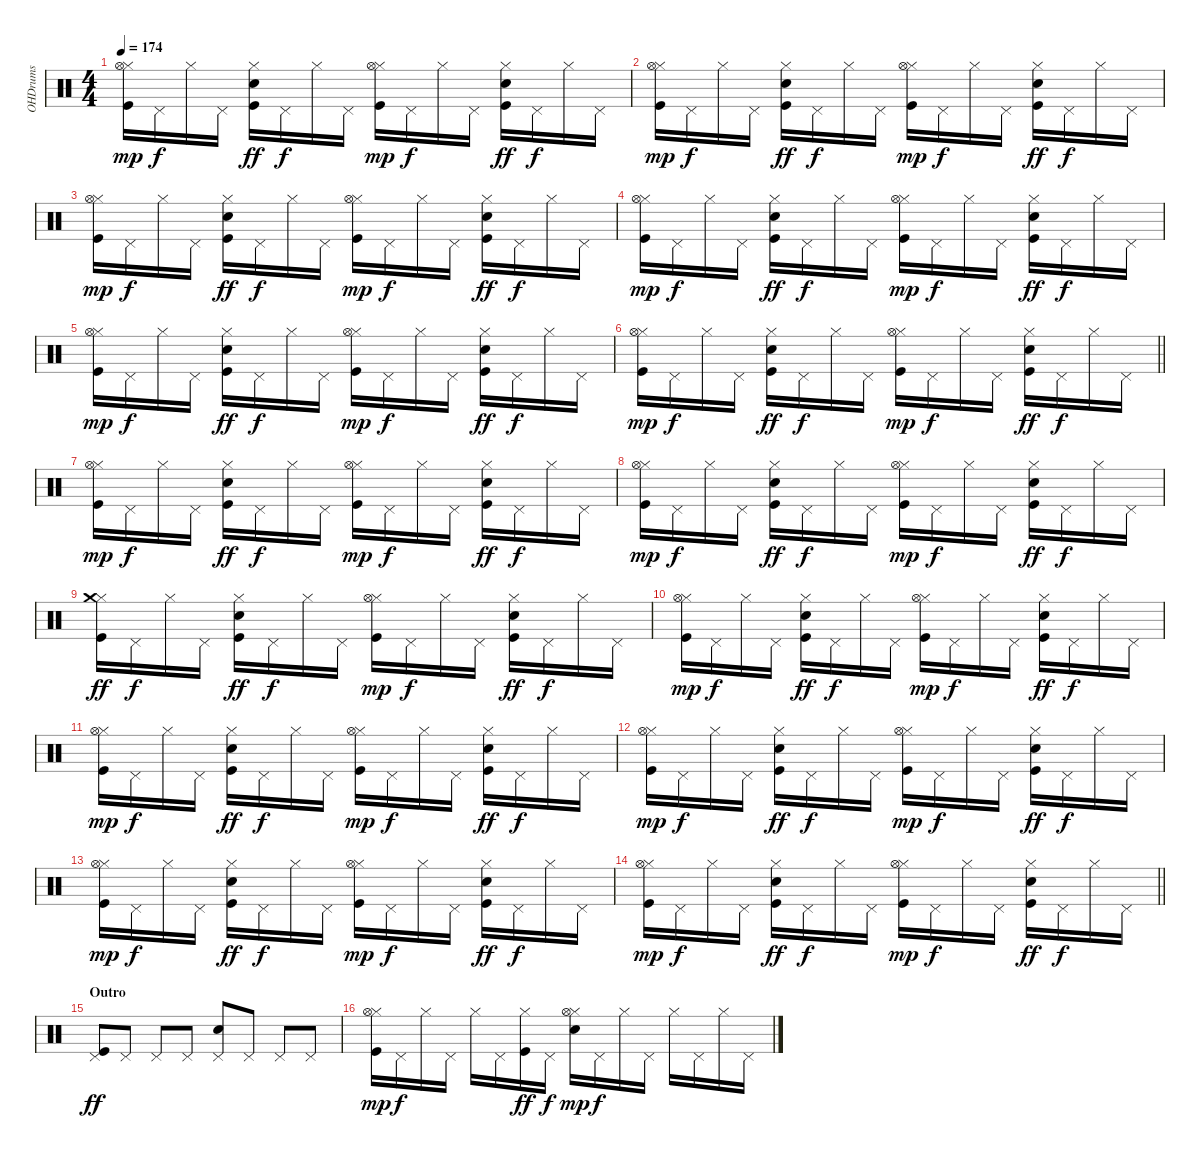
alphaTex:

\track ("OHDrums" "OHDrums") {instrument percussion}
\staff {score}
\articulation defaults
\ts (4 4)
\tempo 174
\clef neutral
\ks c
("Kick (hit)" "Hi-Hat (closed)" "Hi-Hat (open)").16{dy mp} "Pedal Hi-Hat (hit)".16{dy f} "Hi-Hat (closed)".16 "Pedal Hi-Hat (hit)".16 ("Kick (hit)" "Electric Snare (hit)" "Hi-Hat (closed)").16{dy ff} "Pedal Hi-Hat (hit)".16{dy f} "Hi-Hat (closed)".16 "Pedal Hi-Hat (hit)".16 ("Kick (hit)" "Hi-Hat (closed)" "Hi-Hat (open)").16{dy mp} "Pedal Hi-Hat (hit)".16{dy f} "Hi-Hat (closed)".16 "Pedal Hi-Hat (hit)".16 ("Kick (hit)" "Electric Snare (hit)" "Hi-Hat (closed)").16{dy ff} "Pedal Hi-Hat (hit)".16{dy f} "Hi-Hat (closed)".16 "Pedal Hi-Hat (hit)".16 |
("Kick (hit)" "Hi-Hat (closed)" "Hi-Hat (open)").16{dy mp} "Pedal Hi-Hat (hit)".16{dy f} "Hi-Hat (closed)".16 "Pedal Hi-Hat (hit)".16 ("Kick (hit)" "Electric Snare (hit)" "Hi-Hat (closed)").16{dy ff} "Pedal Hi-Hat (hit)".16{dy f} "Hi-Hat (closed)".16 "Pedal Hi-Hat (hit)".16 ("Kick (hit)" "Hi-Hat (closed)" "Hi-Hat (open)").16{dy mp} "Pedal Hi-Hat (hit)".16{dy f} "Hi-Hat (closed)".16 "Pedal Hi-Hat (hit)".16 ("Kick (hit)" "Electric Snare (hit)" "Hi-Hat (closed)").16{dy ff} "Pedal Hi-Hat (hit)".16{dy f} "Hi-Hat (closed)".16 "Pedal Hi-Hat (hit)".16 |
("Kick (hit)" "Hi-Hat (closed)" "Hi-Hat (open)").16{dy mp} "Pedal Hi-Hat (hit)".16{dy f} "Hi-Hat (closed)".16 "Pedal Hi-Hat (hit)".16 ("Kick (hit)" "Electric Snare (hit)" "Hi-Hat (closed)").16{dy ff} "Pedal Hi-Hat (hit)".16{dy f} "Hi-Hat (closed)".16 "Pedal Hi-Hat (hit)".16 ("Kick (hit)" "Hi-Hat (closed)" "Hi-Hat (open)").16{dy mp} "Pedal Hi-Hat (hit)".16{dy f} "Hi-Hat (closed)".16 "Pedal Hi-Hat (hit)".16 ("Kick (hit)" "Electric Snare (hit)" "Hi-Hat (closed)").16{dy ff} "Pedal Hi-Hat (hit)".16{dy f} "Hi-Hat (closed)".16 "Pedal Hi-Hat (hit)".16 |
("Kick (hit)" "Hi-Hat (closed)" "Hi-Hat (open)").16{dy mp} "Pedal Hi-Hat (hit)".16{dy f} "Hi-Hat (closed)".16 "Pedal Hi-Hat (hit)".16 ("Kick (hit)" "Electric Snare (hit)" "Hi-Hat (closed)").16{dy ff} "Pedal Hi-Hat (hit)".16{dy f} "Hi-Hat (closed)".16 "Pedal Hi-Hat (hit)".16 ("Kick (hit)" "Hi-Hat (closed)" "Hi-Hat (open)").16{dy mp} "Pedal Hi-Hat (hit)".16{dy f} "Hi-Hat (closed)".16 "Pedal Hi-Hat (hit)".16 ("Kick (hit)" "Electric Snare (hit)" "Hi-Hat (closed)").16{dy ff} "Pedal Hi-Hat (hit)".16{dy f} "Hi-Hat (closed)".16 "Pedal Hi-Hat (hit)".16 |
("Kick (hit)" "Hi-Hat (closed)" "Hi-Hat (open)").16{dy mp} "Pedal Hi-Hat (hit)".16{dy f} "Hi-Hat (closed)".16 "Pedal Hi-Hat (hit)".16 ("Kick (hit)" "Electric Snare (hit)" "Hi-Hat (closed)").16{dy ff} "Pedal Hi-Hat (hit)".16{dy f} "Hi-Hat (closed)".16 "Pedal Hi-Hat (hit)".16 ("Kick (hit)" "Hi-Hat (closed)" "Hi-Hat (open)").16{dy mp} "Pedal Hi-Hat (hit)".16{dy f} "Hi-Hat (closed)".16 "Pedal Hi-Hat (hit)".16 ("Kick (hit)" "Electric Snare (hit)" "Hi-Hat (closed)").16{dy ff} "Pedal Hi-Hat (hit)".16{dy f} "Hi-Hat (closed)".16 "Pedal Hi-Hat (hit)".16 |
\barLineRight lightlight
("Kick (hit)" "Hi-Hat (closed)" "Hi-Hat (open)").16{dy mp} "Pedal Hi-Hat (hit)".16{dy f} "Hi-Hat (closed)".16 "Pedal Hi-Hat (hit)".16 ("Kick (hit)" "Electric Snare (hit)" "Hi-Hat (closed)").16{dy ff} "Pedal Hi-Hat (hit)".16{dy f} "Hi-Hat (closed)".16 "Pedal Hi-Hat (hit)".16 ("Kick (hit)" "Hi-Hat (closed)" "Hi-Hat (open)").16{dy mp} "Pedal Hi-Hat (hit)".16{dy f} "Hi-Hat (closed)".16 "Pedal Hi-Hat (hit)".16 ("Kick (hit)" "Electric Snare (hit)" "Hi-Hat (closed)").16{dy ff} "Pedal Hi-Hat (hit)".16{dy f} "Hi-Hat (closed)".16 "Pedal Hi-Hat (hit)".16 |
("Kick (hit)" "Hi-Hat (closed)" "Hi-Hat (open)").16{dy mp} "Pedal Hi-Hat (hit)".16{dy f} "Hi-Hat (closed)".16 "Pedal Hi-Hat (hit)".16 ("Kick (hit)" "Electric Snare (hit)" "Hi-Hat (closed)").16{dy ff} "Pedal Hi-Hat (hit)".16{dy f} "Hi-Hat (closed)".16 "Pedal Hi-Hat (hit)".16 ("Kick (hit)" "Hi-Hat (closed)" "Hi-Hat (open)").16{dy mp} "Pedal Hi-Hat (hit)".16{dy f} "Hi-Hat (closed)".16 "Pedal Hi-Hat (hit)".16 ("Kick (hit)" "Electric Snare (hit)" "Hi-Hat (closed)").16{dy ff} "Pedal Hi-Hat (hit)".16{dy f} "Hi-Hat (closed)".16 "Pedal Hi-Hat (hit)".16 |
("Kick (hit)" "Hi-Hat (closed)" "Hi-Hat (open)").16{dy mp} "Pedal Hi-Hat (hit)".16{dy f} "Hi-Hat (closed)".16 "Pedal Hi-Hat (hit)".16 ("Kick (hit)" "Electric Snare (hit)" "Hi-Hat (closed)").16{dy ff} "Pedal Hi-Hat (hit)".16{dy f} "Hi-Hat (closed)".16 "Pedal Hi-Hat (hit)".16 ("Kick (hit)" "Hi-Hat (closed)" "Hi-Hat (open)").16{dy mp} "Pedal Hi-Hat (hit)".16{dy f} "Hi-Hat (closed)".16 "Pedal Hi-Hat (hit)".16 ("Kick (hit)" "Electric Snare (hit)" "Hi-Hat (closed)").16{dy ff} "Pedal Hi-Hat (hit)".16{dy f} "Hi-Hat (closed)".16 "Pedal Hi-Hat (hit)".16 |
("Kick (hit)" "Hi-Hat (closed)" "Crash medium (hit)").16{dy ff} "Pedal Hi-Hat (hit)".16{dy f} "Hi-Hat (closed)".16 "Pedal Hi-Hat (hit)".16 ("Kick (hit)" "Electric Snare (hit)" "Hi-Hat (closed)").16{dy ff} "Pedal Hi-Hat (hit)".16{dy f} "Hi-Hat (closed)".16 "Pedal Hi-Hat (hit)".16 ("Kick (hit)" "Hi-Hat (closed)" "Hi-Hat (open)").16{dy mp} "Pedal Hi-Hat (hit)".16{dy f} "Hi-Hat (closed)".16 "Pedal Hi-Hat (hit)".16 ("Kick (hit)" "Electric Snare (hit)" "Hi-Hat (closed)").16{dy ff} "Pedal Hi-Hat (hit)".16{dy f} "Hi-Hat (closed)".16 "Pedal Hi-Hat (hit)".16 |
("Kick (hit)" "Hi-Hat (closed)" "Hi-Hat (open)").16{dy mp} "Pedal Hi-Hat (hit)".16{dy f} "Hi-Hat (closed)".16 "Pedal Hi-Hat (hit)".16 ("Kick (hit)" "Electric Snare (hit)" "Hi-Hat (closed)").16{dy ff} "Pedal Hi-Hat (hit)".16{dy f} "Hi-Hat (closed)".16 "Pedal Hi-Hat (hit)".16 ("Kick (hit)" "Hi-Hat (closed)" "Hi-Hat (open)").16{dy mp} "Pedal Hi-Hat (hit)".16{dy f} "Hi-Hat (closed)".16 "Pedal Hi-Hat (hit)".16 ("Kick (hit)" "Electric Snare (hit)" "Hi-Hat (closed)").16{dy ff} "Pedal Hi-Hat (hit)".16{dy f} "Hi-Hat (closed)".16 "Pedal Hi-Hat (hit)".16 |
("Kick (hit)" "Hi-Hat (closed)" "Hi-Hat (open)").16{dy mp} "Pedal Hi-Hat (hit)".16{dy f} "Hi-Hat (closed)".16 "Pedal Hi-Hat (hit)".16 ("Kick (hit)" "Electric Snare (hit)" "Hi-Hat (closed)").16{dy ff} "Pedal Hi-Hat (hit)".16{dy f} "Hi-Hat (closed)".16 "Pedal Hi-Hat (hit)".16 ("Kick (hit)" "Hi-Hat (closed)" "Hi-Hat (open)").16{dy mp} "Pedal Hi-Hat (hit)".16{dy f} "Hi-Hat (closed)".16 "Pedal Hi-Hat (hit)".16 ("Kick (hit)" "Electric Snare (hit)" "Hi-Hat (closed)").16{dy ff} "Pedal Hi-Hat (hit)".16{dy f} "Hi-Hat (closed)".16 "Pedal Hi-Hat (hit)".16 |
("Kick (hit)" "Hi-Hat (closed)" "Hi-Hat (open)").16{dy mp} "Pedal Hi-Hat (hit)".16{dy f} "Hi-Hat (closed)".16 "Pedal Hi-Hat (hit)".16 ("Kick (hit)" "Electric Snare (hit)" "Hi-Hat (closed)").16{dy ff} "Pedal Hi-Hat (hit)".16{dy f} "Hi-Hat (closed)".16 "Pedal Hi-Hat (hit)".16 ("Kick (hit)" "Hi-Hat (closed)" "Hi-Hat (open)").16{dy mp} "Pedal Hi-Hat (hit)".16{dy f} "Hi-Hat (closed)".16 "Pedal Hi-Hat (hit)".16 ("Kick (hit)" "Electric Snare (hit)" "Hi-Hat (closed)").16{dy ff} "Pedal Hi-Hat (hit)".16{dy f} "Hi-Hat (closed)".16 "Pedal Hi-Hat (hit)".16 |
("Kick (hit)" "Hi-Hat (closed)" "Hi-Hat (open)").16{dy mp} "Pedal Hi-Hat (hit)".16{dy f} "Hi-Hat (closed)".16 "Pedal Hi-Hat (hit)".16 ("Kick (hit)" "Electric Snare (hit)" "Hi-Hat (closed)").16{dy ff} "Pedal Hi-Hat (hit)".16{dy f} "Hi-Hat (closed)".16 "Pedal Hi-Hat (hit)".16 ("Kick (hit)" "Hi-Hat (closed)" "Hi-Hat (open)").16{dy mp} "Pedal Hi-Hat (hit)".16{dy f} "Hi-Hat (closed)".16 "Pedal Hi-Hat (hit)".16 ("Kick (hit)" "Electric Snare (hit)" "Hi-Hat (closed)").16{dy ff} "Pedal Hi-Hat (hit)".16{dy f} "Hi-Hat (closed)".16 "Pedal Hi-Hat (hit)".16 |
\barLineRight lightlight
("Kick (hit)" "Hi-Hat (closed)" "Hi-Hat (open)").16{dy mp} "Pedal Hi-Hat (hit)".16{dy f} "Hi-Hat (closed)".16 "Pedal Hi-Hat (hit)".16 ("Kick (hit)" "Electric Snare (hit)" "Hi-Hat (closed)").16{dy ff} "Pedal Hi-Hat (hit)".16{dy f} "Hi-Hat (closed)".16 "Pedal Hi-Hat (hit)".16 ("Kick (hit)" "Hi-Hat (closed)" "Hi-Hat (open)").16{dy mp} "Pedal Hi-Hat (hit)".16{dy f} "Hi-Hat (closed)".16 "Pedal Hi-Hat (hit)".16 ("Kick (hit)" "Electric Snare (hit)" "Hi-Hat (closed)").16{dy ff} "Pedal Hi-Hat (hit)".16{dy f} "Hi-Hat (closed)".16 "Pedal Hi-Hat (hit)".16 |
\section ("" "Outro")
("Kick (hit)" "Pedal Hi-Hat (hit)").8{dy ff} "Pedal Hi-Hat (hit)".8 "Pedal Hi-Hat (hit)".8 "Pedal Hi-Hat (hit)".8 ("Electric Snare (hit)" "Pedal Hi-Hat (hit)").8 "Pedal Hi-Hat (hit)".8 "Pedal Hi-Hat (hit)".8 "Pedal Hi-Hat (hit)".8 |
("Kick (hit)" "Hi-Hat (closed)" "Hi-Hat (open)").16{dy mp} "Pedal Hi-Hat (hit)".16{dy f} "Hi-Hat (closed)".16 "Pedal Hi-Hat (hit)".16 "Hi-Hat (closed)".16 "Pedal Hi-Hat (hit)".16 ("Kick (hit)" "Hi-Hat (closed)").16{dy ff} "Pedal Hi-Hat (hit)".16{dy f} ("Electric Snare (hit)" "Hi-Hat (closed)" "Hi-Hat (open)").16{dy mp} "Pedal Hi-Hat (hit)".16{dy f} "Hi-Hat (closed)".16 "Pedal Hi-Hat (hit)".16 "Hi-Hat (closed)".16 "Pedal Hi-Hat (hit)".16 "Hi-Hat (closed)".16 "Pedal Hi-Hat (hit)".16
